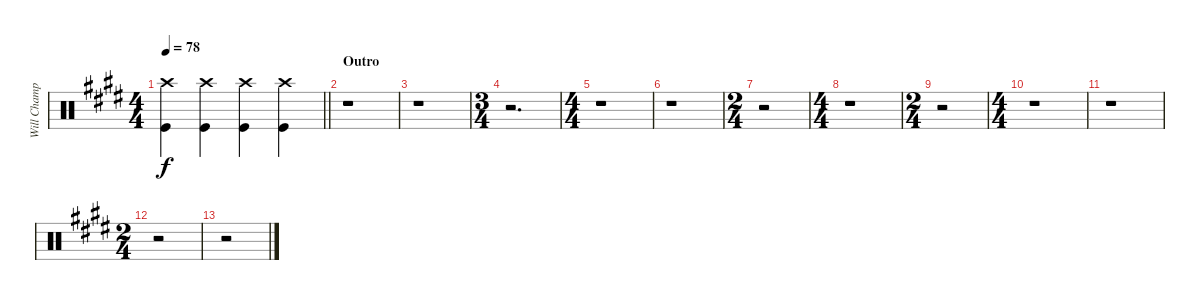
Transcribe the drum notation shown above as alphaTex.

\track ("Will Champion/Drums" "Will Champ") {instrument percussion}
\staff {score}
\articulation defaults
\ts (4 4)
\tempo 78
\clef neutral
\barLineRight lightlight
\ks c#minor
("Crash high (hit)" "Kick (hit)").4{dy f} ("Crash high (hit)" "Kick (hit)").4 ("Crash high (hit)" "Kick (hit)").4 ("Crash high (hit)" "Kick (hit)").4 |
\section ("" "Outro")
r.1 |
r.1 |
\ts (3 4)
r.2{d} |
\ts (4 4)
r.1 |
r.1 |
\ts (2 4)
r.2 |
\ts (4 4)
r.1 |
\ts (2 4)
r.2 |
\ts (4 4)
r.1 |
r.1 |
\ts (2 4)
r.2 |
r.2
